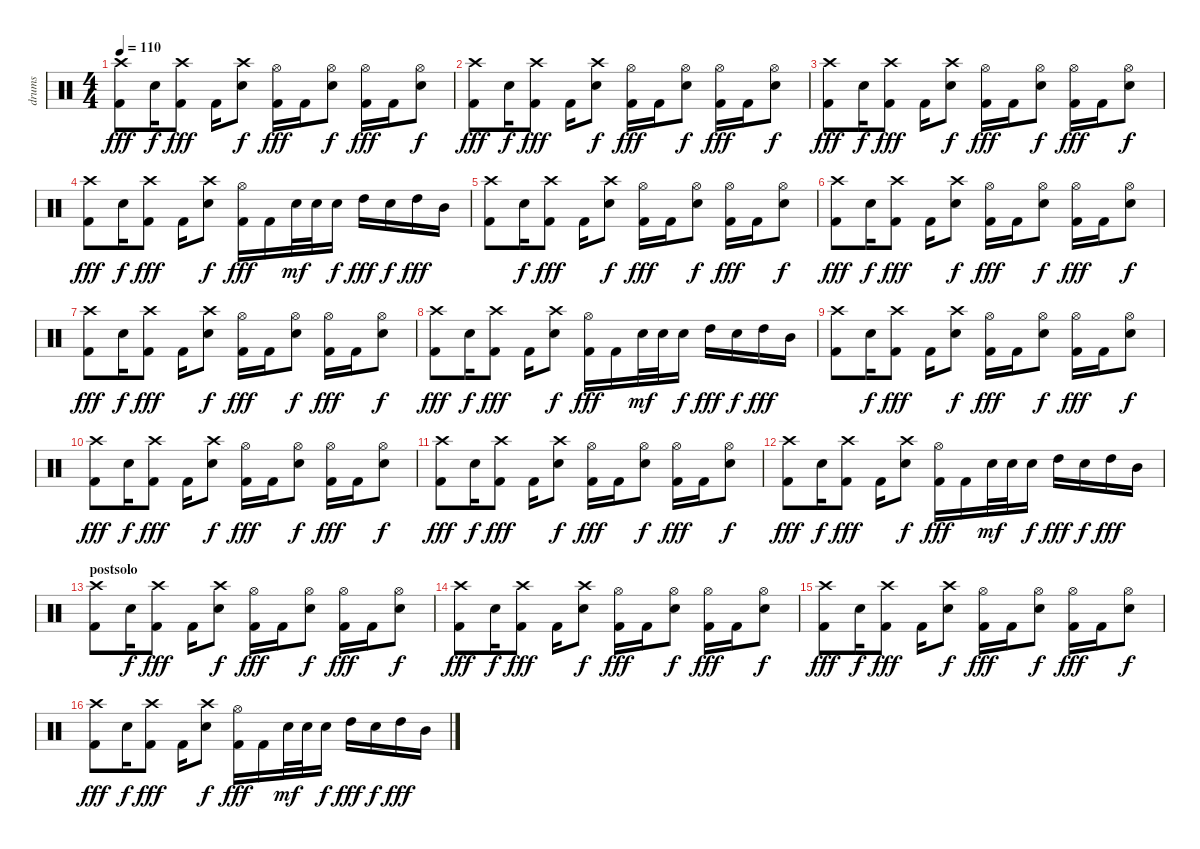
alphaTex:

\track ("drums" "drums") {instrument percussion}
\staff {score}
\articulation defaults
\ts (4 4)
\tempo 110
\clef neutral
\ks c
("Crash high (hit)" "Kick (hit) 2").8{dy fff} "Snare (hit) 2".16{dy f} ("Crash high (hit)" "Kick (hit) 2").8{dy fff} "Kick (hit) 2".16 ("Crash high (hit)" "Snare (hit) 2").8{dy f} ("Hi-Hat (open)" "Kick (hit) 2").16{dy fff} "Kick (hit) 2".16 ("Hi-Hat (open)" "Snare (hit) 2").8{dy f} ("Hi-Hat (open)" "Kick (hit) 2").16{dy fff} "Kick (hit) 2".16 ("Hi-Hat (open)" "Snare (hit) 2").8{dy f} |
("Crash high (hit)" "Kick (hit) 2").8{dy fff} "Snare (hit) 2".16{dy f} ("Crash high (hit)" "Kick (hit) 2").8{dy fff} "Kick (hit) 2".16 ("Crash high (hit)" "Snare (hit) 2").8{dy f} ("Hi-Hat (open)" "Kick (hit) 2").16{dy fff} "Kick (hit) 2".16 ("Hi-Hat (open)" "Snare (hit) 2").8{dy f} ("Hi-Hat (open)" "Kick (hit) 2").16{dy fff} "Kick (hit) 2".16 ("Hi-Hat (open)" "Snare (hit) 2").8{dy f} |
("Crash high (hit)" "Kick (hit) 2").8{dy fff} "Snare (hit) 2".16{dy f} ("Crash high (hit)" "Kick (hit) 2").8{dy fff} "Kick (hit) 2".16 ("Crash high (hit)" "Snare (hit) 2").8{dy f} ("Hi-Hat (open)" "Kick (hit) 2").16{dy fff} "Kick (hit) 2".16 ("Hi-Hat (open)" "Snare (hit) 2").8{dy f} ("Hi-Hat (open)" "Kick (hit) 2").16{dy fff} "Kick (hit) 2".16 ("Hi-Hat (open)" "Snare (hit) 2").8{dy f} |
("Crash high (hit)" "Kick (hit) 2").8{dy fff} "Snare (hit) 2".16{dy f} ("Crash high (hit)" "Kick (hit) 2").8{dy fff} "Kick (hit) 2".16 ("Crash high (hit)" "Snare (hit) 2").8{dy f} ("Hi-Hat (open)" "Kick (hit) 2").16{dy fff} "Kick (hit) 2".16 "Snare (hit) 2".32{dy mf} "Snare (hit) 2".32 "Snare (hit) 2".16{dy f} "High Tom (hit)".16{dy fff} "Snare (hit) 2".16{dy f} "High Tom (hit)".16{dy fff} "Mid Tom (hit)".16 |
("Crash high (hit)" "Kick (hit) 2").8 "Snare (hit) 2".16{dy f} ("Crash high (hit)" "Kick (hit) 2").8{dy fff} "Kick (hit) 2".16 ("Crash high (hit)" "Snare (hit) 2").8{dy f} ("Hi-Hat (open)" "Kick (hit) 2").16{dy fff} "Kick (hit) 2".16 ("Hi-Hat (open)" "Snare (hit) 2").8{dy f} ("Hi-Hat (open)" "Kick (hit) 2").16{dy fff} "Kick (hit) 2".16 ("Hi-Hat (open)" "Snare (hit) 2").8{dy f} |
("Crash high (hit)" "Kick (hit) 2").8{dy fff} "Snare (hit) 2".16{dy f} ("Crash high (hit)" "Kick (hit) 2").8{dy fff} "Kick (hit) 2".16 ("Crash high (hit)" "Snare (hit) 2").8{dy f} ("Hi-Hat (open)" "Kick (hit) 2").16{dy fff} "Kick (hit) 2".16 ("Hi-Hat (open)" "Snare (hit) 2").8{dy f} ("Hi-Hat (open)" "Kick (hit) 2").16{dy fff} "Kick (hit) 2".16 ("Hi-Hat (open)" "Snare (hit) 2").8{dy f} |
("Crash high (hit)" "Kick (hit) 2").8{dy fff} "Snare (hit) 2".16{dy f} ("Crash high (hit)" "Kick (hit) 2").8{dy fff} "Kick (hit) 2".16 ("Crash high (hit)" "Snare (hit) 2").8{dy f} ("Hi-Hat (open)" "Kick (hit) 2").16{dy fff} "Kick (hit) 2".16 ("Hi-Hat (open)" "Snare (hit) 2").8{dy f} ("Hi-Hat (open)" "Kick (hit) 2").16{dy fff} "Kick (hit) 2".16 ("Hi-Hat (open)" "Snare (hit) 2").8{dy f} |
("Crash high (hit)" "Kick (hit) 2").8{dy fff} "Snare (hit) 2".16{dy f} ("Crash high (hit)" "Kick (hit) 2").8{dy fff} "Kick (hit) 2".16 ("Crash high (hit)" "Snare (hit) 2").8{dy f} ("Hi-Hat (open)" "Kick (hit) 2").16{dy fff} "Kick (hit) 2".16 "Snare (hit) 2".32{dy mf} "Snare (hit) 2".32 "Snare (hit) 2".16{dy f} "High Tom (hit)".16{dy fff} "Snare (hit) 2".16{dy f} "High Tom (hit)".16{dy fff} "Mid Tom (hit)".16 |
("Crash high (hit)" "Kick (hit) 2").8 "Snare (hit) 2".16{dy f} ("Crash high (hit)" "Kick (hit) 2").8{dy fff} "Kick (hit) 2".16 ("Crash high (hit)" "Snare (hit) 2").8{dy f} ("Hi-Hat (open)" "Kick (hit) 2").16{dy fff} "Kick (hit) 2".16 ("Hi-Hat (open)" "Snare (hit) 2").8{dy f} ("Hi-Hat (open)" "Kick (hit) 2").16{dy fff} "Kick (hit) 2".16 ("Hi-Hat (open)" "Snare (hit) 2").8{dy f} |
("Crash high (hit)" "Kick (hit) 2").8{dy fff} "Snare (hit) 2".16{dy f} ("Crash high (hit)" "Kick (hit) 2").8{dy fff} "Kick (hit) 2".16 ("Crash high (hit)" "Snare (hit) 2").8{dy f} ("Hi-Hat (open)" "Kick (hit) 2").16{dy fff} "Kick (hit) 2".16 ("Hi-Hat (open)" "Snare (hit) 2").8{dy f} ("Hi-Hat (open)" "Kick (hit) 2").16{dy fff} "Kick (hit) 2".16 ("Hi-Hat (open)" "Snare (hit) 2").8{dy f} |
("Crash high (hit)" "Kick (hit) 2").8{dy fff} "Snare (hit) 2".16{dy f} ("Crash high (hit)" "Kick (hit) 2").8{dy fff} "Kick (hit) 2".16 ("Crash high (hit)" "Snare (hit) 2").8{dy f} ("Hi-Hat (open)" "Kick (hit) 2").16{dy fff} "Kick (hit) 2".16 ("Hi-Hat (open)" "Snare (hit) 2").8{dy f} ("Hi-Hat (open)" "Kick (hit) 2").16{dy fff} "Kick (hit) 2".16 ("Hi-Hat (open)" "Snare (hit) 2").8{dy f} |
("Crash high (hit)" "Kick (hit) 2").8{dy fff} "Snare (hit) 2".16{dy f} ("Crash high (hit)" "Kick (hit) 2").8{dy fff} "Kick (hit) 2".16 ("Crash high (hit)" "Snare (hit) 2").8{dy f} ("Hi-Hat (open)" "Kick (hit) 2").16{dy fff} "Kick (hit) 2".16 "Snare (hit) 2".32{dy mf} "Snare (hit) 2".32 "Snare (hit) 2".16{dy f} "High Tom (hit)".16{dy fff} "Snare (hit) 2".16{dy f} "High Tom (hit)".16{dy fff} "Mid Tom (hit)".16 |
\section ("" "postsolo")
("Crash high (hit)" "Kick (hit) 2").8 "Snare (hit) 2".16{dy f} ("Crash high (hit)" "Kick (hit) 2").8{dy fff} "Kick (hit) 2".16 ("Crash high (hit)" "Snare (hit) 2").8{dy f} ("Hi-Hat (open)" "Kick (hit) 2").16{dy fff} "Kick (hit) 2".16 ("Hi-Hat (open)" "Snare (hit) 2").8{dy f} ("Hi-Hat (open)" "Kick (hit) 2").16{dy fff} "Kick (hit) 2".16 ("Hi-Hat (open)" "Snare (hit) 2").8{dy f} |
("Crash high (hit)" "Kick (hit) 2").8{dy fff} "Snare (hit) 2".16{dy f} ("Crash high (hit)" "Kick (hit) 2").8{dy fff} "Kick (hit) 2".16 ("Crash high (hit)" "Snare (hit) 2").8{dy f} ("Hi-Hat (open)" "Kick (hit) 2").16{dy fff} "Kick (hit) 2".16 ("Hi-Hat (open)" "Snare (hit) 2").8{dy f} ("Hi-Hat (open)" "Kick (hit) 2").16{dy fff} "Kick (hit) 2".16 ("Hi-Hat (open)" "Snare (hit) 2").8{dy f} |
("Crash high (hit)" "Kick (hit) 2").8{dy fff} "Snare (hit) 2".16{dy f} ("Crash high (hit)" "Kick (hit) 2").8{dy fff} "Kick (hit) 2".16 ("Crash high (hit)" "Snare (hit) 2").8{dy f} ("Hi-Hat (open)" "Kick (hit) 2").16{dy fff} "Kick (hit) 2".16 ("Hi-Hat (open)" "Snare (hit) 2").8{dy f} ("Hi-Hat (open)" "Kick (hit) 2").16{dy fff} "Kick (hit) 2".16 ("Hi-Hat (open)" "Snare (hit) 2").8{dy f} |
("Crash high (hit)" "Kick (hit) 2").8{dy fff} "Snare (hit) 2".16{dy f} ("Crash high (hit)" "Kick (hit) 2").8{dy fff} "Kick (hit) 2".16 ("Crash high (hit)" "Snare (hit) 2").8{dy f} ("Hi-Hat (open)" "Kick (hit) 2").16{dy fff} "Kick (hit) 2".16 "Snare (hit) 2".32{dy mf} "Snare (hit) 2".32 "Snare (hit) 2".16{dy f} "High Tom (hit)".16{dy fff} "Snare (hit) 2".16{dy f} "High Tom (hit)".16{dy fff} "Mid Tom (hit)".16
